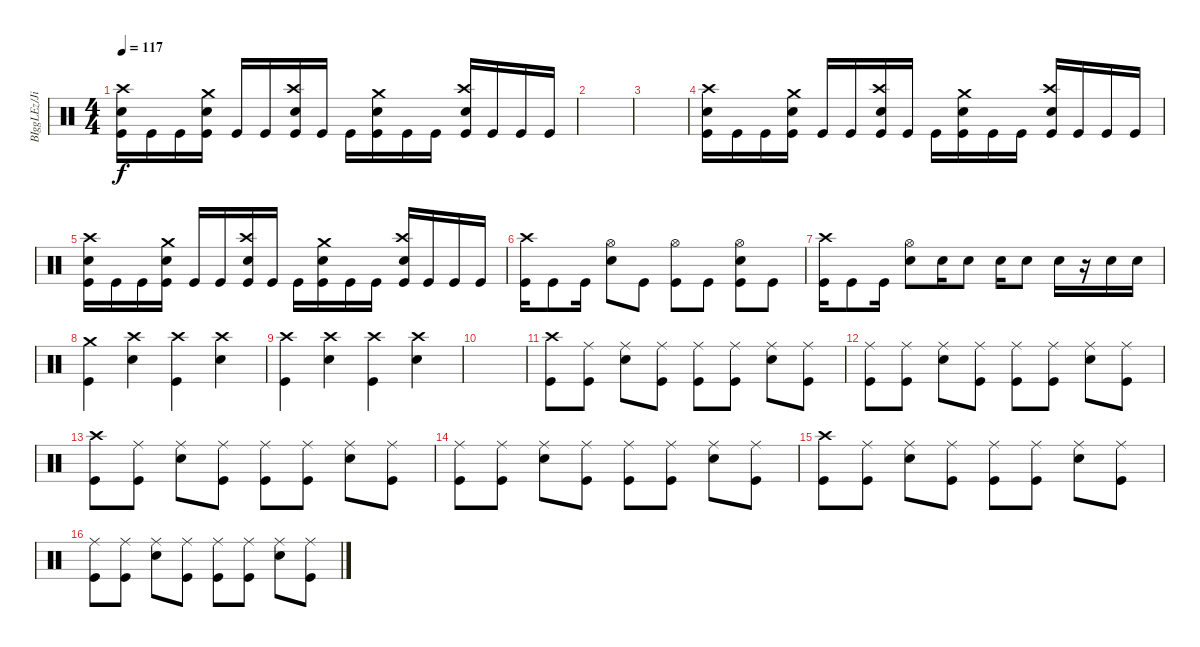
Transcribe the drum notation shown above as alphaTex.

\track ("BIggLEz/Jimmy" "BIggLEz/Ji") {instrument percussion}
\staff {score}
\articulation defaults
\ts (4 4)
\tempo 117
\clef neutral
\ks c
("Kick (hit)" "Crash high (hit)" "Snare (hit) 2").16{dy f} "Kick (hit)".16 "Kick (hit)".16 ("Kick (hit)" "Snare (hit) 2" "Crash medium (hit)").16 "Kick (hit)".16 "Kick (hit)".16 ("Kick (hit)" "Snare (hit) 2" "Crash high (hit)").16 "Kick (hit)".16 "Kick (hit)".16 ("Kick (hit)" "Snare (hit) 2" "Crash medium (hit)").16 "Kick (hit)".16 "Kick (hit)".16 ("Kick (hit)" "Crash high (hit)" "Snare (hit) 2").16 "Kick (hit)".16 "Kick (hit)".16 "Kick (hit)".16 |
|
|
("Kick (hit)" "Crash high (hit)" "Snare (hit) 2").16 "Kick (hit)".16 "Kick (hit)".16 ("Kick (hit)" "Snare (hit) 2" "Crash medium (hit)").16 "Kick (hit)".16 "Kick (hit)".16 ("Kick (hit)" "Snare (hit) 2" "Crash high (hit)").16 "Kick (hit)".16 "Kick (hit)".16 ("Kick (hit)" "Snare (hit) 2" "Crash medium (hit)").16 "Kick (hit)".16 "Kick (hit)".16 ("Kick (hit)" "Crash high (hit)" "Snare (hit) 2").16 "Kick (hit)".16 "Kick (hit)".16 "Kick (hit)".16 |
("Kick (hit)" "Crash high (hit)" "Snare (hit) 2").16 "Kick (hit)".16 "Kick (hit)".16 ("Kick (hit)" "Snare (hit) 2" "Crash medium (hit)").16 "Kick (hit)".16 "Kick (hit)".16 ("Kick (hit)" "Snare (hit) 2" "Crash high (hit)").16 "Kick (hit)".16 "Kick (hit)".16 ("Kick (hit)" "Snare (hit) 2" "Crash medium (hit)").16 "Kick (hit)".16 "Kick (hit)".16 ("Kick (hit)" "Crash high (hit)" "Snare (hit) 2").16 "Kick (hit)".16 "Kick (hit)".16 "Kick (hit)".16 |
("Kick (hit)" "Crash high (hit)").16 "Kick (hit)".8 "Kick (hit)".16 ("Snare (hit) 2" "Hi-Hat (open)").8 "Kick (hit)".8 ("Kick (hit)" "Hi-Hat (open)").8 "Kick (hit)".8 ("Kick (hit)" "Hi-Hat (open)" "Snare (hit) 2").8 "Kick (hit)".8 |
("Kick (hit)" "Crash high (hit)").16 "Kick (hit)".8 "Kick (hit)".16 ("Snare (hit) 2" "Hi-Hat (open)").8 "Snare (hit) 2".16 "Snare (hit) 2".8 "Snare (hit) 2".16 "Snare (hit) 2".8 "Snare (hit) 2".16 r.16 "Snare (hit) 2".16 "Snare (hit) 2".16 |
("Kick (hit)" "Crash medium (hit)").4 ("Crash high (hit)" "Snare (hit) 2").4 ("Crash high (hit)" "Kick (hit)").4 ("Crash high (hit)" "Snare (hit) 2").4 |
("Crash high (hit)" "Kick (hit)").4 ("Crash high (hit)" "Snare (hit) 2").4 ("Crash high (hit)" "Kick (hit)").4 ("Crash high (hit)" "Snare (hit) 2").4 |
|
("Crash high (hit)" "Kick (hit)").8 ("Ride (middle)" "Kick (hit)").8 ("Ride (middle)" "Snare (hit) 2").8 ("Ride (middle)" "Kick (hit)").8 ("Ride (middle)" "Kick (hit)").8 ("Ride (middle)" "Kick (hit)").8 ("Ride (middle)" "Snare (hit) 2").8 ("Ride (middle)" "Kick (hit)").8 |
("Ride (middle)" "Kick (hit)").8 ("Ride (middle)" "Kick (hit)").8 ("Ride (middle)" "Snare (hit) 2").8 ("Ride (middle)" "Kick (hit)").8 ("Ride (middle)" "Kick (hit)").8 ("Ride (middle)" "Kick (hit)").8 ("Ride (middle)" "Snare (hit) 2").8 ("Ride (middle)" "Kick (hit)").8 |
("Crash high (hit)" "Kick (hit)").8 ("Ride (middle)" "Kick (hit)").8 ("Ride (middle)" "Snare (hit) 2").8 ("Ride (middle)" "Kick (hit)").8 ("Ride (middle)" "Kick (hit)").8 ("Ride (middle)" "Kick (hit)").8 ("Ride (middle)" "Snare (hit) 2").8 ("Ride (middle)" "Kick (hit)").8 |
("Ride (middle)" "Kick (hit)").8 ("Ride (middle)" "Kick (hit)").8 ("Ride (middle)" "Snare (hit) 2").8 ("Ride (middle)" "Kick (hit)").8 ("Ride (middle)" "Kick (hit)").8 ("Ride (middle)" "Kick (hit)").8 ("Ride (middle)" "Snare (hit) 2").8 ("Ride (middle)" "Kick (hit)").8 |
("Crash high (hit)" "Kick (hit)").8 ("Ride (middle)" "Kick (hit)").8 ("Ride (middle)" "Snare (hit) 2").8 ("Ride (middle)" "Kick (hit)").8 ("Ride (middle)" "Kick (hit)").8 ("Ride (middle)" "Kick (hit)").8 ("Ride (middle)" "Snare (hit) 2").8 ("Ride (middle)" "Kick (hit)").8 |
("Ride (middle)" "Kick (hit)").8 ("Ride (middle)" "Kick (hit)").8 ("Ride (middle)" "Snare (hit) 2").8 ("Ride (middle)" "Kick (hit)").8 ("Ride (middle)" "Kick (hit)").8 ("Ride (middle)" "Kick (hit)").8 ("Ride (middle)" "Snare (hit) 2").8 ("Ride (middle)" "Kick (hit)").8
